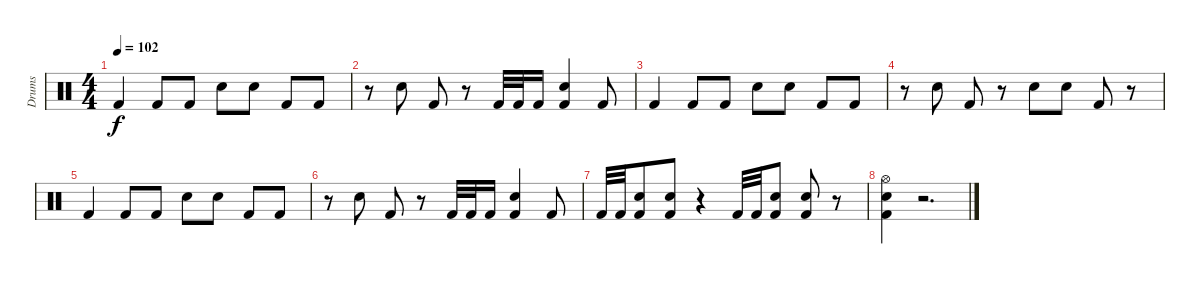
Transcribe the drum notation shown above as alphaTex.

\track ("Drums" "Drums") {instrument percussion}
\staff {score}
\articulation defaults
\ts (4 4)
\tempo 102
\clef neutral
\ks c "Kick (hit) 2".4{dy f} "Kick (hit) 2".8 "Kick (hit) 2".8 "Snare (hit) 2".8 "Snare (hit) 2".8 "Kick (hit) 2".8 "Kick (hit) 2".8
|
r.8 "Snare (hit) 2".8 "Kick (hit) 2".8 r.8 "Kick (hit) 2".32 "Kick (hit) 2".32 "Kick (hit) 2".16 ("Snare (hit) 2" "Kick (hit) 2").4 "Kick (hit) 2".8 |
"Kick (hit) 2".4 "Kick (hit) 2".8 "Kick (hit) 2".8 "Snare (hit) 2".8 "Snare (hit) 2".8 "Kick (hit) 2".8 "Kick (hit) 2".8 |
r.8 "Snare (hit) 2".8 "Kick (hit) 2".8 r.8 "Snare (hit) 2".8 "Snare (hit) 2".8 "Kick (hit) 2".8 r.8 |
"Kick (hit) 2".4 "Kick (hit) 2".8 "Kick (hit) 2".8 "Snare (hit) 2".8 "Snare (hit) 2".8 "Kick (hit) 2".8 "Kick (hit) 2".8 |
r.8 "Snare (hit) 2".8 "Kick (hit) 2".8 r.8 "Kick (hit) 2".32 "Kick (hit) 2".32 "Kick (hit) 2".16 ("Snare (hit) 2" "Kick (hit) 2").4 "Kick (hit) 2".8 |
"Kick (hit) 2".32 "Kick (hit) 2".32 ("Snare (hit) 2" "Kick (hit) 2").8 ("Snare (hit) 2" "Kick (hit) 2").8 r.4 "Kick (hit) 2".32 "Kick (hit) 2".32 ("Snare (hit) 2" "Kick (hit) 2").8 ("Snare (hit) 2" "Kick (hit) 2").8 r.8 |
("Hi-Hat (open)" "Snare (hit) 2" "Kick (hit) 2").4 r.2{d}
